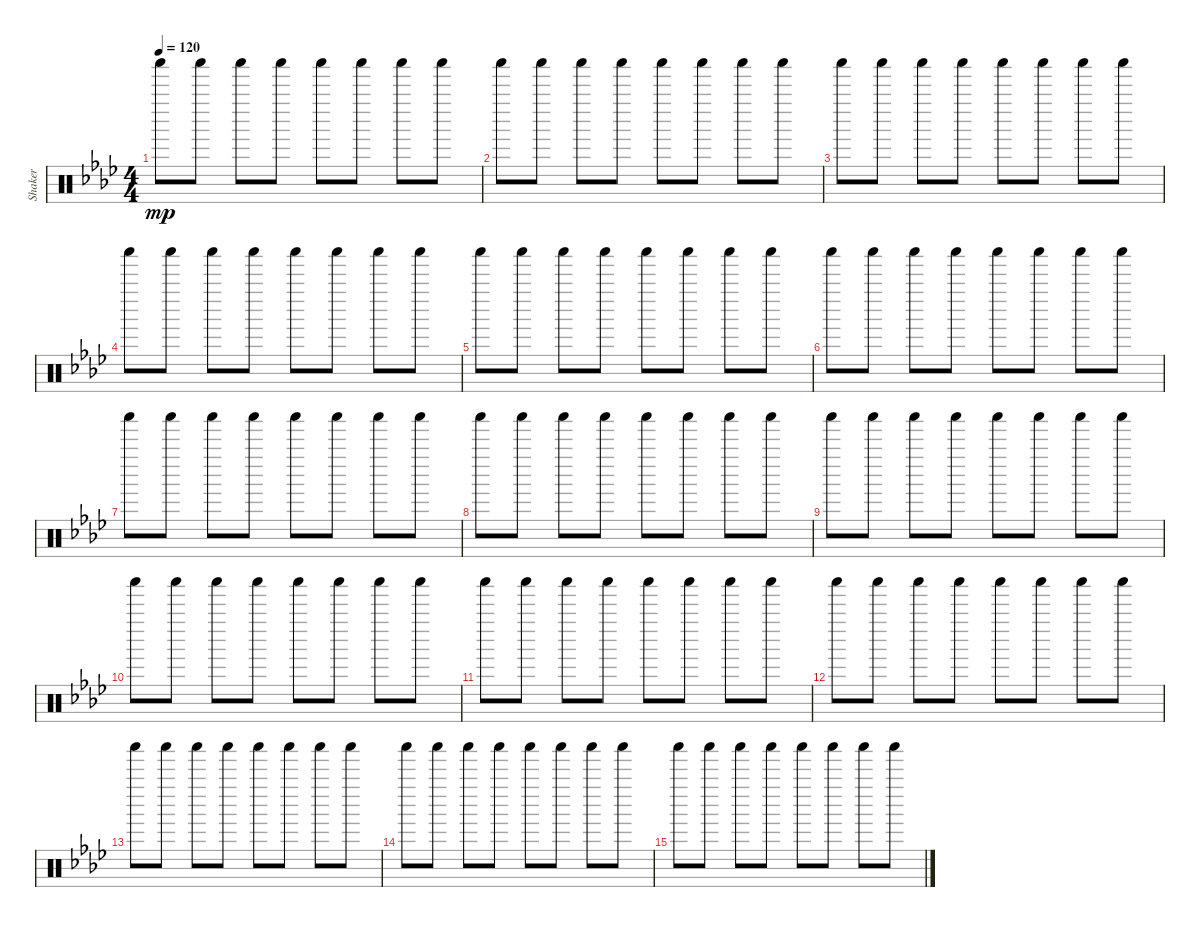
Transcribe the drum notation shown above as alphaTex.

\track ("Shaker" "Shaker") {instrument percussion}
\staff {score}
\articulation defaults
\ts (4 4)
\tempo 120
\clef neutral
\ks ab "Shaker (hit)".8{dy mp} "Shaker (hit)".8 "Shaker (hit)".8 "Shaker (hit)".8 "Shaker (hit)".8 "Shaker (hit)".8 "Shaker (hit)".8 "Shaker (hit)".8
|
"Shaker (hit)".8 "Shaker (hit)".8 "Shaker (hit)".8 "Shaker (hit)".8 "Shaker (hit)".8 "Shaker (hit)".8 "Shaker (hit)".8 "Shaker (hit)".8 |
"Shaker (hit)".8 "Shaker (hit)".8 "Shaker (hit)".8 "Shaker (hit)".8 "Shaker (hit)".8 "Shaker (hit)".8 "Shaker (hit)".8 "Shaker (hit)".8 |
"Shaker (hit)".8 "Shaker (hit)".8 "Shaker (hit)".8 "Shaker (hit)".8 "Shaker (hit)".8 "Shaker (hit)".8 "Shaker (hit)".8 "Shaker (hit)".8 |
"Shaker (hit)".8 "Shaker (hit)".8 "Shaker (hit)".8 "Shaker (hit)".8 "Shaker (hit)".8 "Shaker (hit)".8 "Shaker (hit)".8 "Shaker (hit)".8 |
"Shaker (hit)".8 "Shaker (hit)".8 "Shaker (hit)".8 "Shaker (hit)".8 "Shaker (hit)".8 "Shaker (hit)".8 "Shaker (hit)".8 "Shaker (hit)".8 |
"Shaker (hit)".8 "Shaker (hit)".8 "Shaker (hit)".8 "Shaker (hit)".8 "Shaker (hit)".8 "Shaker (hit)".8 "Shaker (hit)".8 "Shaker (hit)".8 |
"Shaker (hit)".8 "Shaker (hit)".8 "Shaker (hit)".8 "Shaker (hit)".8 "Shaker (hit)".8 "Shaker (hit)".8 "Shaker (hit)".8 "Shaker (hit)".8 |
"Shaker (hit)".8 "Shaker (hit)".8 "Shaker (hit)".8 "Shaker (hit)".8 "Shaker (hit)".8 "Shaker (hit)".8 "Shaker (hit)".8 "Shaker (hit)".8 |
"Shaker (hit)".8 "Shaker (hit)".8 "Shaker (hit)".8 "Shaker (hit)".8 "Shaker (hit)".8 "Shaker (hit)".8 "Shaker (hit)".8 "Shaker (hit)".8 |
"Shaker (hit)".8 "Shaker (hit)".8 "Shaker (hit)".8 "Shaker (hit)".8 "Shaker (hit)".8 "Shaker (hit)".8 "Shaker (hit)".8 "Shaker (hit)".8 |
"Shaker (hit)".8 "Shaker (hit)".8 "Shaker (hit)".8 "Shaker (hit)".8 "Shaker (hit)".8 "Shaker (hit)".8 "Shaker (hit)".8 "Shaker (hit)".8 |
"Shaker (hit)".8 "Shaker (hit)".8 "Shaker (hit)".8 "Shaker (hit)".8 "Shaker (hit)".8 "Shaker (hit)".8 "Shaker (hit)".8 "Shaker (hit)".8 |
"Shaker (hit)".8 "Shaker (hit)".8 "Shaker (hit)".8 "Shaker (hit)".8 "Shaker (hit)".8 "Shaker (hit)".8 "Shaker (hit)".8 "Shaker (hit)".8 |
"Shaker (hit)".8 "Shaker (hit)".8 "Shaker (hit)".8 "Shaker (hit)".8 "Shaker (hit)".8 "Shaker (hit)".8 "Shaker (hit)".8 "Shaker (hit)".8
